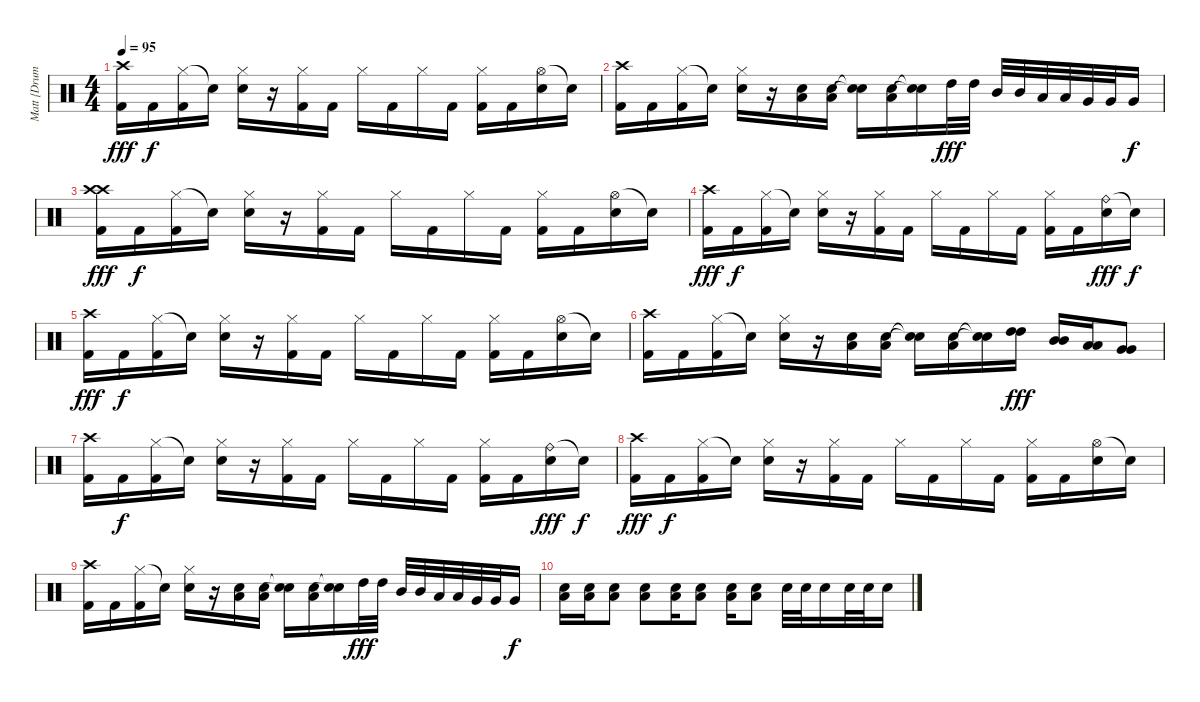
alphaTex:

\track ("Matt {Drums}" "Matt {Drum") {instrument percussion}
\staff {score}
\articulation defaults
\ts (4 4)
\tempo 95
\clef neutral
\ks c
("Crash high (hit)" "Kick (hit) 2").16{dy fff} "Kick (hit) 2".16{dy f} ("Hi-Hat (closed)" "Kick (hit) 2").16 "Electric Snare (hit)"{t}.16 ("Hi-Hat (closed)" "Electric Snare (hit)").16 r.16 ("Hi-Hat (closed)" "Kick (hit) 2").16 "Kick (hit) 2".16 "Hi-Hat (closed)".16 "Kick (hit) 2".16 "Hi-Hat (closed)".16 "Kick (hit) 2".16 ("Hi-Hat (closed)" "Kick (hit) 2").16 "Kick (hit) 2".16 ("Hi-Hat (open)" "Electric Snare (hit)").16 "Snare (hit)"{t}.16 |
("Crash high (hit)" "Kick (hit) 2").16 "Kick (hit) 2".16 ("Hi-Hat (closed)" "Kick (hit) 2").16 "Snare (hit)"{t}.16 ("Hi-Hat (closed)" "Electric Snare (hit)").16 r.16 ("Low Tom (hit)" "Electric Snare (hit)").16 ("Low Tom (hit)" "Electric Snare (hit)").16 ("Snare (hit)"{t} "Snare (hit)"{t}).16 ("Low Tom (hit)" "Electric Snare (hit)").16 ("Snare (hit)"{t} "Snare (hit)"{t}).16 "High Tom (hit)".32{dy fff} "High Tom (hit)".32 "Mid Tom (hit)".32 "Mid Tom (hit)".32 "Low Tom (hit)".32 "Low Tom (hit)".32 "Very Low Tom (hit)".32 "Very Low Tom (hit)".32 "Very Low Tom (hit)".16{dy f} |
("Crash high (hit)" "Crash high (hit)" "Kick (hit) 2").16{dy fff} "Kick (hit) 2".16{dy f} ("Hi-Hat (closed)" "Kick (hit) 2").16 "Electric Snare (hit)"{t}.16 ("Hi-Hat (closed)" "Electric Snare (hit)").16 r.16 ("Hi-Hat (closed)" "Kick (hit) 2").16 "Kick (hit) 2".16 "Hi-Hat (closed)".16 "Kick (hit) 2".16 "Hi-Hat (closed)".16 "Kick (hit) 2".16 ("Hi-Hat (closed)" "Kick (hit) 2").16 "Kick (hit) 2".16 ("Hi-Hat (open)" "Electric Snare (hit)").16 "Snare (hit)"{t}.16 |
("Crash high (hit)" "Kick (hit) 2").16{dy fff} "Kick (hit) 2".16{dy f} ("Hi-Hat (closed)" "Kick (hit) 2").16 "Electric Snare (hit)"{t}.16 ("Hi-Hat (closed)" "Electric Snare (hit)").16 r.16 ("Hi-Hat (closed)" "Kick (hit) 2").16 "Kick (hit) 2".16 "Hi-Hat (closed)".16 "Kick (hit) 2".16 "Hi-Hat (closed)".16 "Kick (hit) 2".16 ("Hi-Hat (closed)" "Kick (hit) 2").16 "Kick (hit) 2".16 ("Ride (bell)" "Electric Snare (hit)").16{dy fff} "Snare (hit)"{t}.16{dy f} |
("Crash high (hit)" "Kick (hit) 2").16{dy fff} "Kick (hit) 2".16{dy f} ("Hi-Hat (closed)" "Kick (hit) 2").16 "Electric Snare (hit)"{t}.16 ("Hi-Hat (closed)" "Electric Snare (hit)").16 r.16 ("Hi-Hat (closed)" "Kick (hit) 2").16 "Kick (hit) 2".16 "Hi-Hat (closed)".16 "Kick (hit) 2".16 "Hi-Hat (closed)".16 "Kick (hit) 2".16 ("Hi-Hat (closed)" "Kick (hit) 2").16 "Kick (hit) 2".16 ("Hi-Hat (open)" "Electric Snare (hit)").16 "Snare (hit)"{t}.16 |
("Crash high (hit)" "Kick (hit) 2").16 "Kick (hit) 2".16 ("Hi-Hat (closed)" "Kick (hit) 2").16 "Snare (hit)"{t}.16 ("Hi-Hat (closed)" "Electric Snare (hit)").16 r.16 ("Low Tom (hit)" "Electric Snare (hit)").16 ("Low Tom (hit)" "Electric Snare (hit)").16 ("Snare (hit)"{t} "Snare (hit)"{t}).16 ("Low Tom (hit)" "Electric Snare (hit)").16 ("Snare (hit)"{t} "Snare (hit)"{t}).16 ("High Tom (hit)" "High Tom (hit)").16{dy fff} ("Mid Tom (hit)" "Mid Tom (hit)").16 ("Low Tom (hit)" "Low Tom (hit)").16 ("Very Low Tom (hit)" "Very Low Tom (hit)").8 |
("Crash high (hit)" "Kick (hit) 2").16 "Kick (hit) 2".16{dy f} ("Hi-Hat (closed)" "Kick (hit) 2").16 "Electric Snare (hit)"{t}.16 ("Hi-Hat (closed)" "Electric Snare (hit)").16 r.16 ("Hi-Hat (closed)" "Kick (hit) 2").16 "Kick (hit) 2".16 "Hi-Hat (closed)".16 "Kick (hit) 2".16 "Hi-Hat (closed)".16 "Kick (hit) 2".16 ("Hi-Hat (closed)" "Kick (hit) 2").16 "Kick (hit) 2".16 ("Ride (bell)" "Electric Snare (hit)").16{dy fff} "Snare (hit)"{t}.16{dy f} |
("Crash high (hit)" "Kick (hit) 2").16{dy fff} "Kick (hit) 2".16{dy f} ("Hi-Hat (closed)" "Kick (hit) 2").16 "Electric Snare (hit)"{t}.16 ("Hi-Hat (closed)" "Electric Snare (hit)").16 r.16 ("Hi-Hat (closed)" "Kick (hit) 2").16 "Kick (hit) 2".16 "Hi-Hat (closed)".16 "Kick (hit) 2".16 "Hi-Hat (closed)".16 "Kick (hit) 2".16 ("Hi-Hat (closed)" "Kick (hit) 2").16 "Kick (hit) 2".16 ("Hi-Hat (open)" "Electric Snare (hit)").16 "Snare (hit)"{t}.16 |
("Crash high (hit)" "Kick (hit) 2").16 "Kick (hit) 2".16 ("Hi-Hat (closed)" "Kick (hit) 2").16 "Snare (hit)"{t}.16 ("Hi-Hat (closed)" "Electric Snare (hit)").16 r.16 ("Low Tom (hit)" "Electric Snare (hit)").16 ("Low Tom (hit)" "Electric Snare (hit)").16 ("Snare (hit)"{t} "Snare (hit)"{t}).16 ("Low Tom (hit)" "Electric Snare (hit)").16 ("Snare (hit)"{t} "Snare (hit)"{t}).16 "High Tom (hit)".32{dy fff} "High Tom (hit)".32 "Mid Tom (hit)".32 "Mid Tom (hit)".32 "Low Tom (hit)".32 "Low Tom (hit)".32 "Very Low Tom (hit)".32 "Very Low Tom (hit)".32 "Very Low Tom (hit)".16{dy f} |
("Low Tom (hit)" "Electric Snare (hit)").16 ("Low Tom (hit)" "Electric Snare (hit)").16 ("Low Tom (hit)" "Electric Snare (hit)").8 ("Low Tom (hit)" "Electric Snare (hit)").8 ("Low Tom (hit)" "Electric Snare (hit)").16 ("Low Tom (hit)" "Electric Snare (hit)").8 ("Low Tom (hit)" "Electric Snare (hit)").16 ("Low Tom (hit)" "Electric Snare (hit)").8 "Electric Snare (hit)".32 "Electric Snare (hit)".32 "Electric Snare (hit)".16 "Electric Snare (hit)".32 "Electric Snare (hit)".32 "Electric Snare (hit)".16
